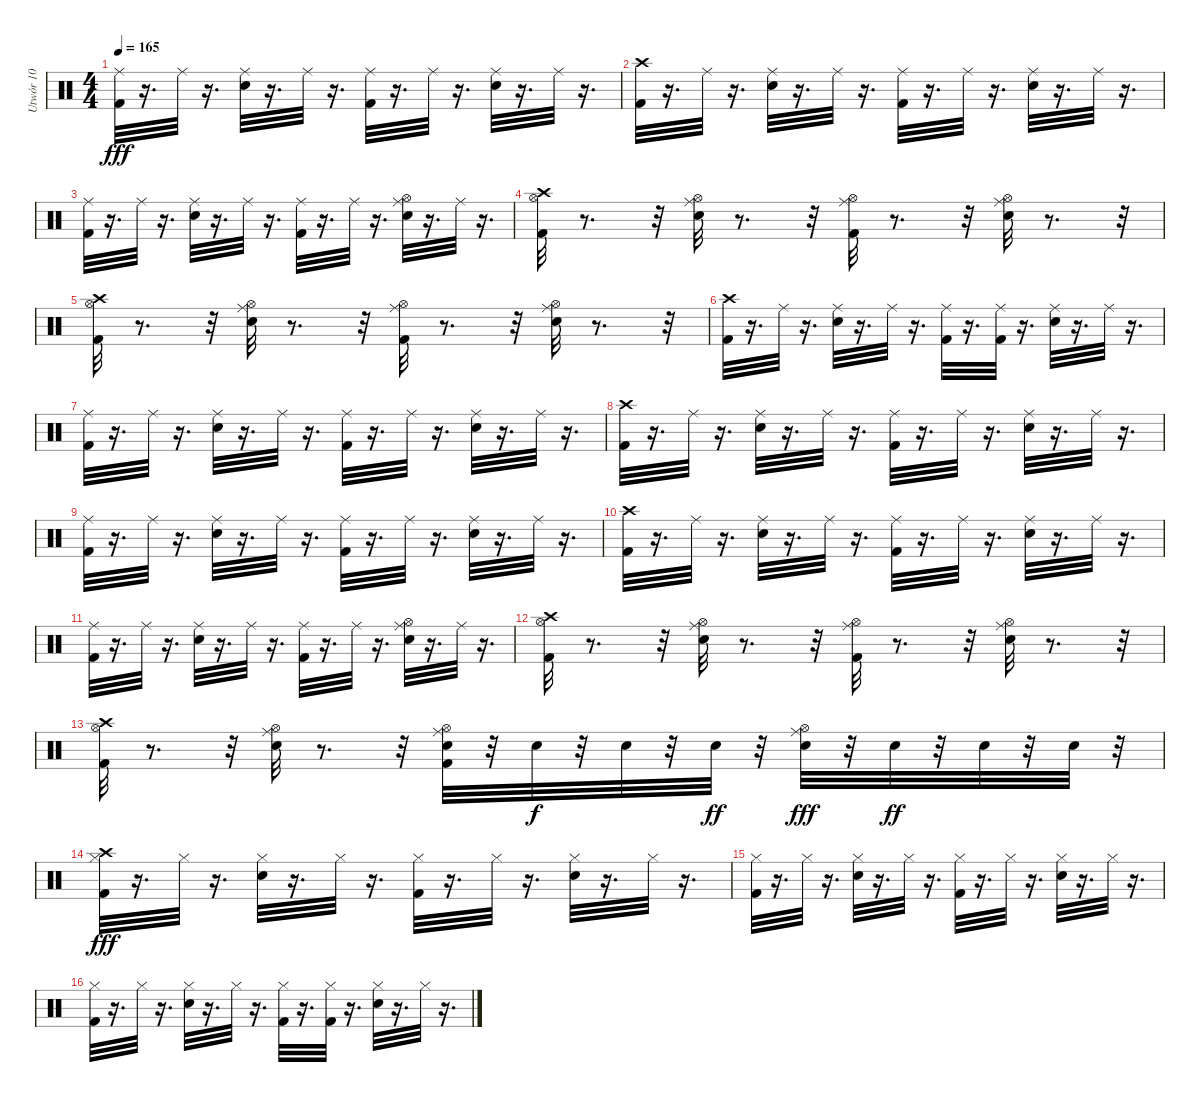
\track ("Utwór 10" "Utwór 10") {instrument percussion}
\staff {score}
\articulation defaults
\ts (4 4)
\tempo 165
\clef neutral
\ks c
("Ride (middle)" "Kick (hit) 2").32{dy fff} r.16{d} "Ride (middle)".32 r.16{d} ("Ride (middle)" "Electric Snare (hit)").32 r.16{d} "Ride (middle)".32 r.16{d} ("Ride (middle)" "Kick (hit) 2").32 r.16{d} "Ride (middle)".32 r.16{d} ("Ride (middle)" "Electric Snare (hit)").32 r.16{d} "Ride (middle)".32 r.16{d} |
("Crash high (hit)" "Kick (hit) 2").32 r.16{d} "Ride (middle)".32 r.16{d} ("Ride (middle)" "Electric Snare (hit)").32 r.16{d} "Ride (middle)".32 r.16{d} ("Ride (middle)" "Kick (hit) 2").32 r.16{d} "Ride (middle)".32 r.16{d} ("Ride (middle)" "Electric Snare (hit)").32 r.16{d} "Ride (middle)".32 r.16{d} |
("Ride (middle)" "Kick (hit) 2").32 r.16{d} "Ride (middle)".32 r.16{d} ("Ride (middle)" "Electric Snare (hit)").32 r.16{d} "Ride (middle)".32 r.16{d} ("Ride (middle)" "Kick (hit) 2").32 r.16{d} "Ride (middle)".32 r.16{d} ("Ride (middle)" "Electric Snare (hit)" "Hi-Hat (open)").32 r.16{d} "Ride (middle)".32 r.16{d} |
("Crash high (hit)" "Kick (hit) 2" "Hi-Hat (open)").32 r.8{d} r.32 ("Ride (middle)" "Electric Snare (hit)" "Hi-Hat (open)").32 r.8{d} r.32 ("Ride (middle)" "Kick (hit) 2" "Hi-Hat (open)").32 r.8{d} r.32 ("Ride (middle)" "Electric Snare (hit)" "Hi-Hat (open)").32 r.8{d} r.32 |
("Crash high (hit)" "Kick (hit) 2" "Hi-Hat (open)").32 r.8{d} r.32 ("Ride (middle)" "Electric Snare (hit)" "Hi-Hat (open)").32 r.8{d} r.32 ("Ride (middle)" "Kick (hit) 2" "Hi-Hat (open)").32 r.8{d} r.32 ("Ride (middle)" "Electric Snare (hit)" "Hi-Hat (open)").32 r.8{d} r.32 |
("Crash high (hit)" "Kick (hit) 2").32 r.16{d} "Ride (middle)".32 r.16{d} ("Ride (middle)" "Electric Snare (hit)").32 r.16{d} "Ride (middle)".32 r.16{d} ("Ride (middle)" "Kick (hit) 2").32 r.16{d} ("Ride (middle)" "Kick (hit) 2").32 r.16{d} ("Ride (middle)" "Electric Snare (hit)").32 r.16{d} "Ride (middle)".32 r.16{d} |
("Ride (middle)" "Kick (hit) 2").32 r.16{d} "Ride (middle)".32 r.16{d} ("Ride (middle)" "Electric Snare (hit)").32 r.16{d} "Ride (middle)".32 r.16{d} ("Ride (middle)" "Kick (hit) 2").32 r.16{d} "Ride (middle)".32 r.16{d} ("Ride (middle)" "Electric Snare (hit)").32 r.16{d} "Ride (middle)".32 r.16{d} |
("Crash high (hit)" "Kick (hit) 2").32 r.16{d} "Ride (middle)".32 r.16{d} ("Ride (middle)" "Electric Snare (hit)").32 r.16{d} "Ride (middle)".32 r.16{d} ("Ride (middle)" "Kick (hit) 2").32 r.16{d} "Ride (middle)".32 r.16{d} ("Ride (middle)" "Electric Snare (hit)").32 r.16{d} "Ride (middle)".32 r.16{d} |
("Ride (middle)" "Kick (hit) 2").32 r.16{d} "Ride (middle)".32 r.16{d} ("Ride (middle)" "Electric Snare (hit)").32 r.16{d} "Ride (middle)".32 r.16{d} ("Ride (middle)" "Kick (hit) 2").32 r.16{d} "Ride (middle)".32 r.16{d} ("Ride (middle)" "Electric Snare (hit)").32 r.16{d} "Ride (middle)".32 r.16{d} |
("Crash high (hit)" "Kick (hit) 2").32 r.16{d} "Ride (middle)".32 r.16{d} ("Ride (middle)" "Electric Snare (hit)").32 r.16{d} "Ride (middle)".32 r.16{d} ("Ride (middle)" "Kick (hit) 2").32 r.16{d} "Ride (middle)".32 r.16{d} ("Ride (middle)" "Electric Snare (hit)").32 r.16{d} "Ride (middle)".32 r.16{d} |
("Ride (middle)" "Kick (hit) 2").32 r.16{d} "Ride (middle)".32 r.16{d} ("Ride (middle)" "Electric Snare (hit)").32 r.16{d} "Ride (middle)".32 r.16{d} ("Ride (middle)" "Kick (hit) 2").32 r.16{d} "Ride (middle)".32 r.16{d} ("Ride (middle)" "Electric Snare (hit)" "Hi-Hat (open)").32 r.16{d} "Ride (middle)".32 r.16{d} |
("Crash high (hit)" "Kick (hit) 2" "Hi-Hat (open)").32 r.8{d} r.32 ("Ride (middle)" "Electric Snare (hit)" "Hi-Hat (open)").32 r.8{d} r.32 ("Ride (middle)" "Kick (hit) 2" "Hi-Hat (open)").32 r.8{d} r.32 ("Ride (middle)" "Electric Snare (hit)" "Hi-Hat (open)").32 r.8{d} r.32 |
("Crash high (hit)" "Kick (hit) 2" "Hi-Hat (open)").32 r.8{d} r.32 ("Ride (middle)" "Electric Snare (hit)" "Hi-Hat (open)").32 r.8{d} r.32 ("Electric Snare (hit)" "Ride (middle)" "Kick (hit) 2" "Hi-Hat (open)").32 r.32 "Electric Snare (hit)".32{dy f} r.32 "Electric Snare (hit)".32 r.32 "Electric Snare (hit)".32{dy ff} r.32 ("Ride (middle)" "Electric Snare (hit)" "Hi-Hat (open)").32{dy fff} r.32 "Electric Snare (hit)".32{dy ff} r.32 "Electric Snare (hit)".32 r.32 "Electric Snare (hit)".32 r.32 |
("Kick (hit) 2" "Hi-Hat (closed)" "Crash high (hit)").32{dy fff} r.16{d} "Hi-Hat (closed)".32 r.16{d} ("Hi-Hat (closed)" "Electric Snare (hit)").32 r.16{d} "Hi-Hat (closed)".32 r.16{d} ("Hi-Hat (closed)" "Kick (hit) 2").32 r.16{d} "Hi-Hat (closed)".32 r.16{d} ("Hi-Hat (closed)" "Electric Snare (hit)").32 r.16{d} "Hi-Hat (closed)".32 r.16{d} |
("Hi-Hat (closed)" "Kick (hit) 2").32 r.16{d} "Hi-Hat (closed)".32 r.16{d} ("Hi-Hat (closed)" "Electric Snare (hit)").32 r.16{d} "Hi-Hat (closed)".32 r.16{d} ("Hi-Hat (closed)" "Kick (hit) 2").32 r.16{d} "Hi-Hat (closed)".32 r.16{d} ("Hi-Hat (closed)" "Electric Snare (hit)").32 r.16{d} "Hi-Hat (closed)".32 r.16{d} |
("Hi-Hat (closed)" "Kick (hit) 2").32 r.16{d} "Hi-Hat (closed)".32 r.16{d} ("Hi-Hat (closed)" "Electric Snare (hit)").32 r.16{d} "Hi-Hat (closed)".32 r.16{d} ("Hi-Hat (closed)" "Kick (hit) 2").32 r.16{d} ("Hi-Hat (closed)" "Kick (hit) 2").32 r.16{d} ("Hi-Hat (closed)" "Electric Snare (hit)").32 r.16{d} "Hi-Hat (closed)".32 r.16{d}
